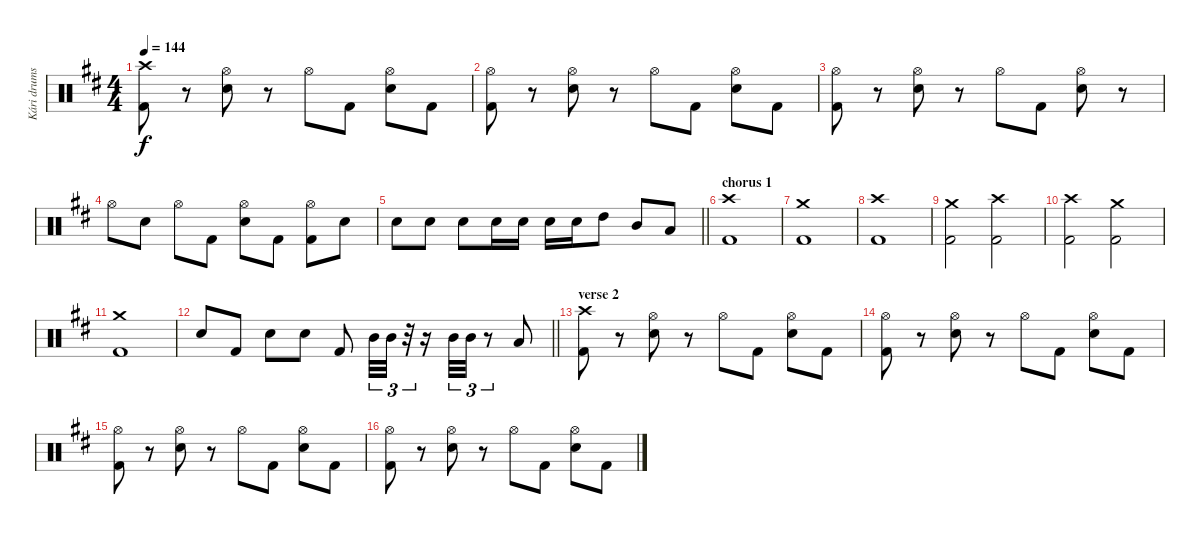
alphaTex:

\track ("Kári drums" "Kári drums") {instrument percussion}
\staff {score}
\articulation defaults
\ts (4 4)
\tempo 144
\clef neutral
\ks bminor
("Crash high (hit)" "Kick (hit) 2").8{dy f} r.8 ("Hi-Hat (open)" "Snare (hit) 2").8 r.8 "Hi-Hat (open)".8 "Kick (hit) 2".8 ("Hi-Hat (open)" "Snare (hit) 2").8 "Kick (hit) 2".8 |
("Hi-Hat (open)" "Kick (hit) 2").8 r.8 ("Hi-Hat (open)" "Snare (hit) 2").8 r.8 "Hi-Hat (open)".8 "Kick (hit) 2".8 ("Hi-Hat (open)" "Snare (hit) 2").8 "Kick (hit) 2".8 |
("Hi-Hat (open)" "Kick (hit) 2").8 r.8 ("Hi-Hat (open)" "Snare (hit) 2").8 r.8 "Hi-Hat (open)".8 "Kick (hit) 2".8 ("Hi-Hat (open)" "Snare (hit) 2").8 r.8 |
"Hi-Hat (open)".8 "Snare (hit) 2".8 "Hi-Hat (open)".8 "Kick (hit) 2".8 ("Hi-Hat (open)" "Snare (hit) 2").8 "Kick (hit) 2".8 ("Hi-Hat (open)" "Kick (hit) 2").8 "Snare (hit) 2".8 |
\barLineRight lightlight "Snare (hit) 2".8 "Snare (hit) 2".8 "Snare (hit) 2".8 "Snare (hit) 2".16 "Snare (hit) 2".16 "Snare (hit) 2".16 "Snare (hit) 2".16 "High Tom (hit)".8 "Mid Tom (hit)".8 "Low Tom (hit)".8
|
\section ("" "chorus 1")
("Crash high (hit)" "Kick (hit) 2").1 |
("Crash medium (hit)" "Kick (hit) 2").1 |
("Crash high (hit)" "Kick (hit) 2").1 |
("Crash medium (hit)" "Kick (hit) 2").2 ("Crash high (hit)" "Kick (hit) 2").2 |
("Crash high (hit)" "Kick (hit) 2").2 ("Crash medium (hit)" "Kick (hit) 2").2 |
("Crash medium (hit)" "Kick (hit) 2").1 |
\barLineRight lightlight "Snare (hit) 2".8 "Kick (hit) 2".8 "Snare (hit) 2".8 "Snare (hit) 2".8 "Kick (hit) 2".8 "Mid Tom (hit)".32{tu (3 2)} "Mid Tom (hit)".32{tu (3 2)}
r.32{tu (3 2)} r.16 "Mid Tom (hit)".32{tu (3 2)} "Mid Tom (hit)".32{tu (3 2)} r.8{tu (3 2)} "Low Tom (hit)".8 |
\section ("" "verse 2")
("Crash high (hit)" "Kick (hit) 2").8 r.8 ("Hi-Hat (open)" "Snare (hit) 2").8 r.8 "Hi-Hat (open)".8 "Kick (hit) 2".8 ("Hi-Hat (open)" "Snare (hit) 2").8 "Kick (hit) 2".8 |
("Hi-Hat (open)" "Kick (hit) 2").8 r.8 ("Hi-Hat (open)" "Snare (hit) 2").8 r.8 "Hi-Hat (open)".8 "Kick (hit) 2".8 ("Hi-Hat (open)" "Snare (hit) 2").8 "Kick (hit) 2".8 |
("Hi-Hat (open)" "Kick (hit) 2").8 r.8 ("Hi-Hat (open)" "Snare (hit) 2").8 r.8 "Hi-Hat (open)".8 "Kick (hit) 2".8 ("Hi-Hat (open)" "Snare (hit) 2").8 "Kick (hit) 2".8 |
("Hi-Hat (open)" "Kick (hit) 2").8 r.8 ("Hi-Hat (open)" "Snare (hit) 2").8 r.8 "Hi-Hat (open)".8 "Kick (hit) 2".8 ("Hi-Hat (open)" "Snare (hit) 2").8 "Kick (hit) 2".8
